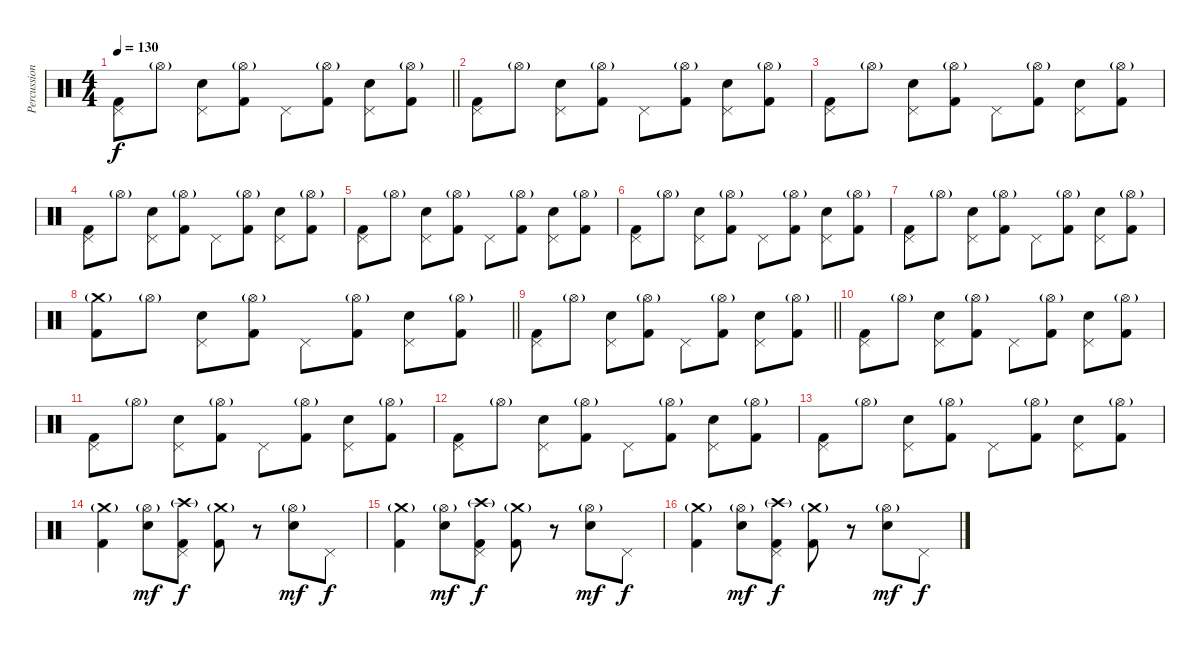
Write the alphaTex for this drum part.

\track ("Percussion" "Percussion") {instrument percussion}
\staff {score}
\articulation defaults
\ts (4 4)
\tempo 130
\clef neutral
\barLineRight lightlight
\ks c
("Pedal Hi-Hat (hit)" "Kick (hit) 2").8{dy f} "Hi-Hat (open)"{g}.8 ("Electric Snare (hit)" "Pedal Hi-Hat (hit)").8 ("Hi-Hat (open)"{g} "Kick (hit) 2").8 "Pedal Hi-Hat (hit)".8 ("Hi-Hat (open)"{g} "Kick (hit) 2").8 ("Electric Snare (hit)" "Pedal Hi-Hat (hit)").8 ("Hi-Hat (open)"{g} "Kick (hit) 2").8 |
("Pedal Hi-Hat (hit)" "Kick (hit) 2").8 "Hi-Hat (open)"{g}.8 ("Electric Snare (hit)" "Pedal Hi-Hat (hit)").8 ("Hi-Hat (open)"{g} "Kick (hit) 2").8 "Pedal Hi-Hat (hit)".8 ("Hi-Hat (open)"{g} "Kick (hit) 2").8 ("Electric Snare (hit)" "Pedal Hi-Hat (hit)").8 ("Hi-Hat (open)"{g} "Kick (hit) 2").8 |
("Pedal Hi-Hat (hit)" "Kick (hit) 2").8 "Hi-Hat (open)"{g}.8 ("Electric Snare (hit)" "Pedal Hi-Hat (hit)").8 ("Hi-Hat (open)"{g} "Kick (hit) 2").8 "Pedal Hi-Hat (hit)".8 ("Hi-Hat (open)"{g} "Kick (hit) 2").8 ("Electric Snare (hit)" "Pedal Hi-Hat (hit)").8 ("Hi-Hat (open)"{g} "Kick (hit) 2").8 |
("Pedal Hi-Hat (hit)" "Kick (hit) 2").8 "Hi-Hat (open)"{g}.8 ("Electric Snare (hit)" "Pedal Hi-Hat (hit)").8 ("Hi-Hat (open)"{g} "Kick (hit) 2").8 "Pedal Hi-Hat (hit)".8 ("Hi-Hat (open)"{g} "Kick (hit) 2").8 ("Electric Snare (hit)" "Pedal Hi-Hat (hit)").8 ("Hi-Hat (open)"{g} "Kick (hit) 2").8 |
("Pedal Hi-Hat (hit)" "Kick (hit) 2").8 "Hi-Hat (open)"{g}.8 ("Electric Snare (hit)" "Pedal Hi-Hat (hit)").8 ("Hi-Hat (open)"{g} "Kick (hit) 2").8 "Pedal Hi-Hat (hit)".8 ("Hi-Hat (open)"{g} "Kick (hit) 2").8 ("Electric Snare (hit)" "Pedal Hi-Hat (hit)").8 ("Hi-Hat (open)"{g} "Kick (hit) 2").8 |
("Pedal Hi-Hat (hit)" "Kick (hit) 2").8 "Hi-Hat (open)"{g}.8 ("Electric Snare (hit)" "Pedal Hi-Hat (hit)").8 ("Hi-Hat (open)"{g} "Kick (hit) 2").8 "Pedal Hi-Hat (hit)".8 ("Hi-Hat (open)"{g} "Kick (hit) 2").8 ("Electric Snare (hit)" "Pedal Hi-Hat (hit)").8 ("Hi-Hat (open)"{g} "Kick (hit) 2").8 |
("Pedal Hi-Hat (hit)" "Kick (hit) 2").8 "Hi-Hat (open)"{g}.8 ("Electric Snare (hit)" "Pedal Hi-Hat (hit)").8 ("Hi-Hat (open)"{g} "Kick (hit) 2").8 "Pedal Hi-Hat (hit)".8 ("Hi-Hat (open)"{g} "Kick (hit) 2").8 ("Electric Snare (hit)" "Pedal Hi-Hat (hit)").8 ("Hi-Hat (open)"{g} "Kick (hit) 2").8 |
\barLineRight lightlight
("Crash medium (hit)"{g} "Kick (hit) 2").8 "Hi-Hat (open)"{g}.8 ("Electric Snare (hit)" "Pedal Hi-Hat (hit)").8 ("Hi-Hat (open)"{g} "Kick (hit) 2").8 "Pedal Hi-Hat (hit)".8 ("Hi-Hat (open)"{g} "Kick (hit) 2").8 ("Electric Snare (hit)" "Pedal Hi-Hat (hit)").8 ("Hi-Hat (open)"{g} "Kick (hit) 2").8 |
\barLineRight lightlight
("Pedal Hi-Hat (hit)" "Kick (hit) 2").8 "Hi-Hat (open)"{g}.8 ("Electric Snare (hit)" "Pedal Hi-Hat (hit)").8 ("Hi-Hat (open)"{g} "Kick (hit) 2").8 "Pedal Hi-Hat (hit)".8 ("Hi-Hat (open)"{g} "Kick (hit) 2").8 ("Electric Snare (hit)" "Pedal Hi-Hat (hit)").8 ("Hi-Hat (open)"{g} "Kick (hit) 2").8 |
("Pedal Hi-Hat (hit)" "Kick (hit) 2").8 "Hi-Hat (open)"{g}.8 ("Electric Snare (hit)" "Pedal Hi-Hat (hit)").8 ("Hi-Hat (open)"{g} "Kick (hit) 2").8 "Pedal Hi-Hat (hit)".8 ("Hi-Hat (open)"{g} "Kick (hit) 2").8 ("Electric Snare (hit)" "Pedal Hi-Hat (hit)").8 ("Hi-Hat (open)"{g} "Kick (hit) 2").8 |
("Pedal Hi-Hat (hit)" "Kick (hit) 2").8 "Hi-Hat (open)"{g}.8 ("Electric Snare (hit)" "Pedal Hi-Hat (hit)").8 ("Hi-Hat (open)"{g} "Kick (hit) 2").8 "Pedal Hi-Hat (hit)".8 ("Hi-Hat (open)"{g} "Kick (hit) 2").8 ("Electric Snare (hit)" "Pedal Hi-Hat (hit)").8 ("Hi-Hat (open)"{g} "Kick (hit) 2").8 |
("Pedal Hi-Hat (hit)" "Kick (hit) 2").8 "Hi-Hat (open)"{g}.8 ("Electric Snare (hit)" "Pedal Hi-Hat (hit)").8 ("Hi-Hat (open)"{g} "Kick (hit) 2").8 "Pedal Hi-Hat (hit)".8 ("Hi-Hat (open)"{g} "Kick (hit) 2").8 ("Electric Snare (hit)" "Pedal Hi-Hat (hit)").8 ("Hi-Hat (open)"{g} "Kick (hit) 2").8 |
("Pedal Hi-Hat (hit)" "Kick (hit) 2").8 "Hi-Hat (open)"{g}.8 ("Electric Snare (hit)" "Pedal Hi-Hat (hit)").8 ("Hi-Hat (open)"{g} "Kick (hit) 2").8 "Pedal Hi-Hat (hit)".8 ("Hi-Hat (open)"{g} "Kick (hit) 2").8 ("Electric Snare (hit)" "Pedal Hi-Hat (hit)").8 ("Hi-Hat (open)"{g} "Kick (hit) 2").8 |
("Crash medium (hit)"{g} "Kick (hit) 2").4 ("Hi-Hat (open)"{g} "Electric Snare (hit)").8{dy mf} ("Crash high (hit)"{g} "Pedal Hi-Hat (hit)" "Kick (hit) 2").8{dy f} ("Crash medium (hit)"{g} "Kick (hit) 2").8 r.8 ("Hi-Hat (open)"{g} "Electric Snare (hit)").8{dy mf} "Pedal Hi-Hat (hit)".8{dy f} |
("Crash medium (hit)"{g} "Kick (hit) 2").4 ("Hi-Hat (open)"{g} "Electric Snare (hit)").8{dy mf} ("Crash high (hit)"{g} "Pedal Hi-Hat (hit)" "Kick (hit) 2").8{dy f} ("Crash medium (hit)"{g} "Kick (hit) 2").8 r.8 ("Hi-Hat (open)"{g} "Electric Snare (hit)").8{dy mf} "Pedal Hi-Hat (hit)".8{dy f} |
("Crash medium (hit)"{g} "Kick (hit) 2").4 ("Hi-Hat (open)"{g} "Electric Snare (hit)").8{dy mf} ("Crash high (hit)"{g} "Pedal Hi-Hat (hit)" "Kick (hit) 2").8{dy f} ("Crash medium (hit)"{g} "Kick (hit) 2").8 r.8 ("Hi-Hat (open)"{g} "Electric Snare (hit)").8{dy mf} "Pedal Hi-Hat (hit)".8{dy f}
